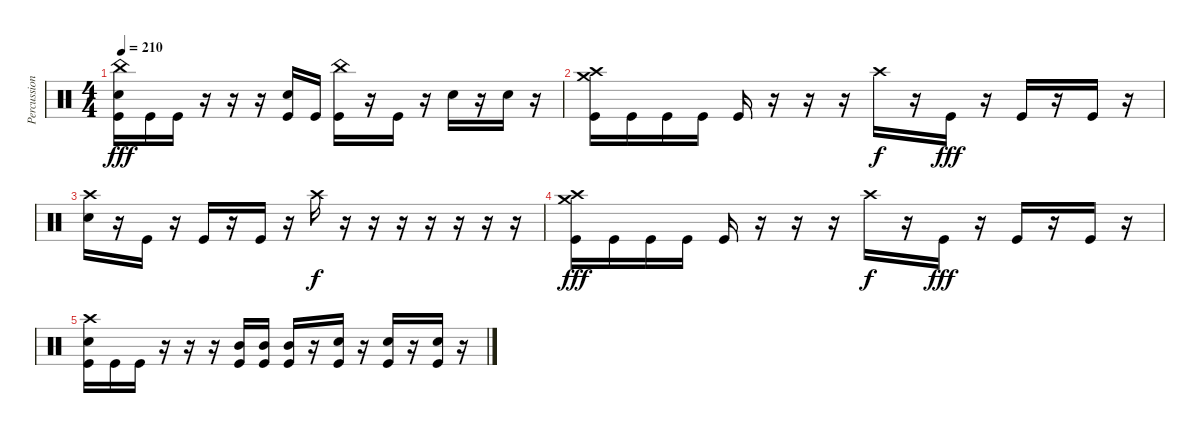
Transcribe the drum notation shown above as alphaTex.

\track ("Percussion" "Percussion") {instrument percussion}
\staff {score}
\articulation defaults
\ts (4 4)
\tempo 210
\clef neutral
\ks c
("China (hit)" "Snare (hit) 2" "Kick (hit)").16{dy fff} "Kick (hit)".16 "Kick (hit)".16 r.16 r.16 r.16 ("Snare (hit) 2" "Kick (hit)").16 "Kick (hit)".16 ("China (hit)" "Kick (hit)").16 r.16 "Kick (hit)".16 r.16 "Snare (hit) 2".16 r.16 "Snare (hit) 2".16 r.16 |
("Crash medium (hit)" "Crash high (hit)" "Kick (hit)").16 "Kick (hit)".16 "Kick (hit)".16 "Kick (hit)".16 "Kick (hit)".16 r.16 r.16 r.16 "Crash high (hit)".16{dy f} r.16 "Kick (hit)".16{dy fff} r.16 "Kick (hit)".16 r.16 "Kick (hit)".16 r.16 |
("Crash high (hit)" "Snare (hit) 2").16 r.16 "Kick (hit)".16 r.16 "Kick (hit)".16 r.16 "Kick (hit)".16 r.16 "Crash high (hit)".16{dy f} r.16 r.16 r.16 r.16 r.16 r.16 r.16 |
("Crash medium (hit)" "Crash high (hit)" "Kick (hit)").16{dy fff} "Kick (hit)".16 "Kick (hit)".16 "Kick (hit)".16 "Kick (hit)".16 r.16 r.16 r.16 "Crash high (hit)".16{dy f} r.16 "Kick (hit)".16{dy fff} r.16 "Kick (hit)".16 r.16 "Kick (hit)".16 r.16 |
("Crash high (hit)" "Snare (hit) 2" "Kick (hit)").16 "Kick (hit)".16 "Kick (hit)".16 r.16 r.16 r.16 ("Mid Tom (hit)" "Kick (hit)").16 ("Mid Tom (hit)" "Kick (hit)").16 ("Mid Tom (hit)" "Kick (hit)").16 r.16 ("Snare (hit) 2" "Kick (hit)").16 r.16 ("Snare (hit) 2" "Kick (hit)").16 r.16 ("Snare (hit) 2" "Kick (hit)").16 r.16
